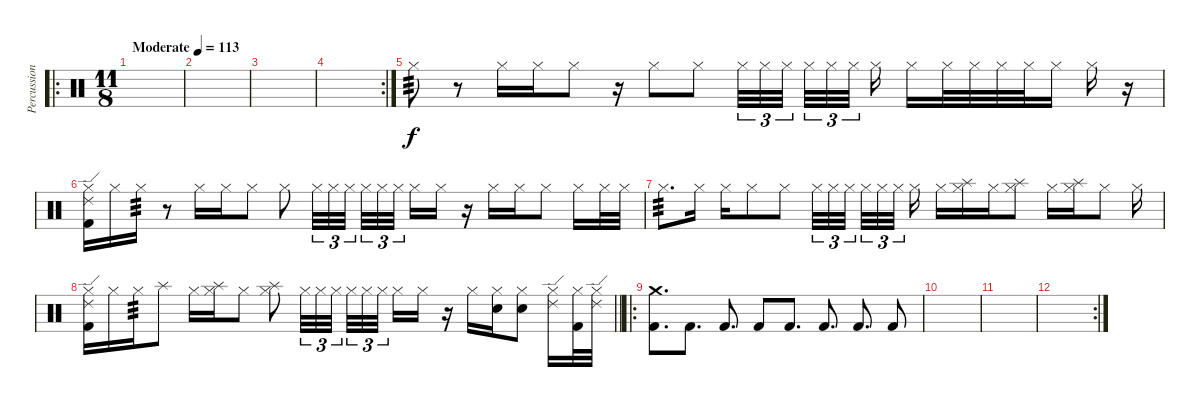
\track ("Percussion" "Percussion") {instrument percussion}
\staff {score}
\articulation defaults
\ro
\ts (11 8)
\tempo (113 "Moderate")
\clef neutral
\ks c
|
|
|
\rc 2
|
"Hi-Hat (closed)".8{tp 3} r.8 "Hi-Hat (closed)".16 "Hi-Hat (closed)".16 "Hi-Hat (closed)".8 r.16 "Hi-Hat (closed)".8 "Hi-Hat (closed)".8 "Hi-Hat (closed)".32{tu (3 2)} "Hi-Hat (closed)".32{tu (3 2)} "Hi-Hat (closed)".32{tu (3 2)} "Hi-Hat (closed)".32{tu (3 2)} "Hi-Hat (closed)".32{tu (3 2)} "Hi-Hat (closed)".32{tu (3 2) beam splitsecondary} "Hi-Hat (closed)".16 "Hi-Hat (closed)".16 "Hi-Hat (closed)".32 "Hi-Hat (closed)".32 "Hi-Hat (closed)".32 "Hi-Hat (closed)".32 "Hi-Hat (closed)".16 "Hi-Hat (closed)".16 r.16 |
("Ride (edge) 2" "Hi-Hat (closed)" "Kick (hit) 2").16 "Hi-Hat (closed)".16 "Hi-Hat (closed)".16{tp 3} r.8 "Hi-Hat (closed)".16 "Hi-Hat (closed)".16 "Hi-Hat (closed)".8 "Hi-Hat (closed)".8 "Hi-Hat (closed)".32{tu (3 2)} "Hi-Hat (closed)".32{tu (3 2)} "Hi-Hat (closed)".32{tu (3 2)} "Hi-Hat (closed)".32{tu (3 2)} "Hi-Hat (closed)".32{tu (3 2)} "Hi-Hat (closed)".32{tu (3 2) beam splitsecondary} "Hi-Hat (closed)".16 "Hi-Hat (closed)".16 r.16 "Hi-Hat (closed)".16 "Hi-Hat (closed)".16 "Hi-Hat (closed)".8 "Hi-Hat (closed)".16 "Hi-Hat (closed)".32 "Hi-Hat (closed)".32 |
"Hi-Hat (closed)".8{d tp 3} "Hi-Hat (closed)".16 "Hi-Hat (closed)".16 "Hi-Hat (closed)".8 "Hi-Hat (closed)".8 "Hi-Hat (closed)".32{tu (3 2)} "Hi-Hat (closed)".32{tu (3 2)} "Hi-Hat (closed)".32{tu (3 2)} "Hi-Hat (closed)".32{tu (3 2)} "Hi-Hat (closed)".32{tu (3 2)} "Hi-Hat (closed)".32{tu (3 2) beam splitsecondary} "Hi-Hat (closed)".16 "Hi-Hat (closed)".16 ("Splash (hit)" "Hi-Hat (closed)").16 "Hi-Hat (closed)".16 ("Splash (hit)" "Hi-Hat (closed)").8 "Hi-Hat (closed)".16 ("Splash (hit)" "Hi-Hat (closed)").16 "Hi-Hat (closed)".8 "Hi-Hat (closed)".16 |
\barLineRight lightlight
("Ride (edge) 2" "Hi-Hat (closed)" "Kick (hit) 2").16 "Hi-Hat (closed)".16 "Hi-Hat (closed)".16{tp 3} "Splash (hit)".8 "Hi-Hat (closed)".16 ("Splash (hit)" "Hi-Hat (closed)").16 "Hi-Hat (closed)".8 ("Splash (hit)" "Hi-Hat (closed)").8 "Hi-Hat (closed)".32{tu (3 2)} "Hi-Hat (closed)".32{tu (3 2)} "Hi-Hat (closed)".32{tu (3 2)} "Hi-Hat (closed)".32{tu (3 2)} "Hi-Hat (closed)".32{tu (3 2)} "Hi-Hat (closed)".32{tu (3 2) beam splitsecondary} "Hi-Hat (closed)".16 "Hi-Hat (closed)".16 r.16 "Hi-Hat (closed)".16 ("Electric Snare (hit)" "Hi-Hat (closed)").16 ("Electric Snare (hit)" "Hi-Hat (closed)").8 ("Ride (edge) 2" "Hi-Hat (closed)").16 ("Kick (hit) 2" "Hi-Hat (closed)").32 ("Ride (edge) 2" "Hi-Hat (closed)").32 |
\ro
\section ("" "")
("Crash medium (hit)" "Kick (hit) 2").8{d} "Kick (hit) 2".8{d} "Kick (hit) 2".8{d} "Kick (hit) 2".8 "Kick (hit) 2".8{d} "Kick (hit) 2".8{d} "Kick (hit) 2".8{d} "Kick (hit) 2".8 |
|
|
\rc 2
